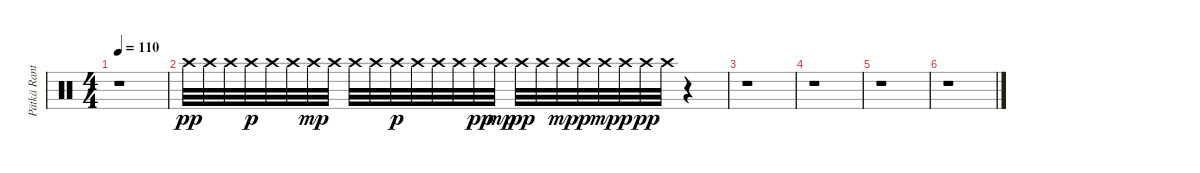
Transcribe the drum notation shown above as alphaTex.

\track ("Pätkä Rantala (Drums)" "Pätkä Rant") {instrument percussion}
\staff {score}
\articulation defaults
\ts (4 4)
\tempo 110
\clef neutral
\ks c
r.1{dy p} |
"Crash high (hit)".32{dy pp} "Crash high (hit)".32 "Crash high (hit)".32 "Crash high (hit)".32{dy p} "Crash high (hit)".32 "Crash high (hit)".32 "Crash high (hit)".32{dy mp} "Crash high (hit)".32 "Crash high (hit)".32 "Crash high (hit)".32 "Crash high (hit)".32{dy p} "Crash high (hit)".32 "Crash high (hit)".32 "Crash high (hit)".32 "Crash high (hit)".32{dy pp} "Crash high (hit)".32{dy mp} "Crash high (hit)".32{dy pp} "Crash high (hit)".32 "Crash high (hit)".32{dy mp} "Crash high (hit)".32{dy p} "Crash high (hit)".32{dy mp} "Crash high (hit)".32{dy p} "Crash high (hit)".32{dy pp} "Crash high (hit)".32 r.4 |
r.1 |
r.1{volume 0} |
r.1 |
r.1
